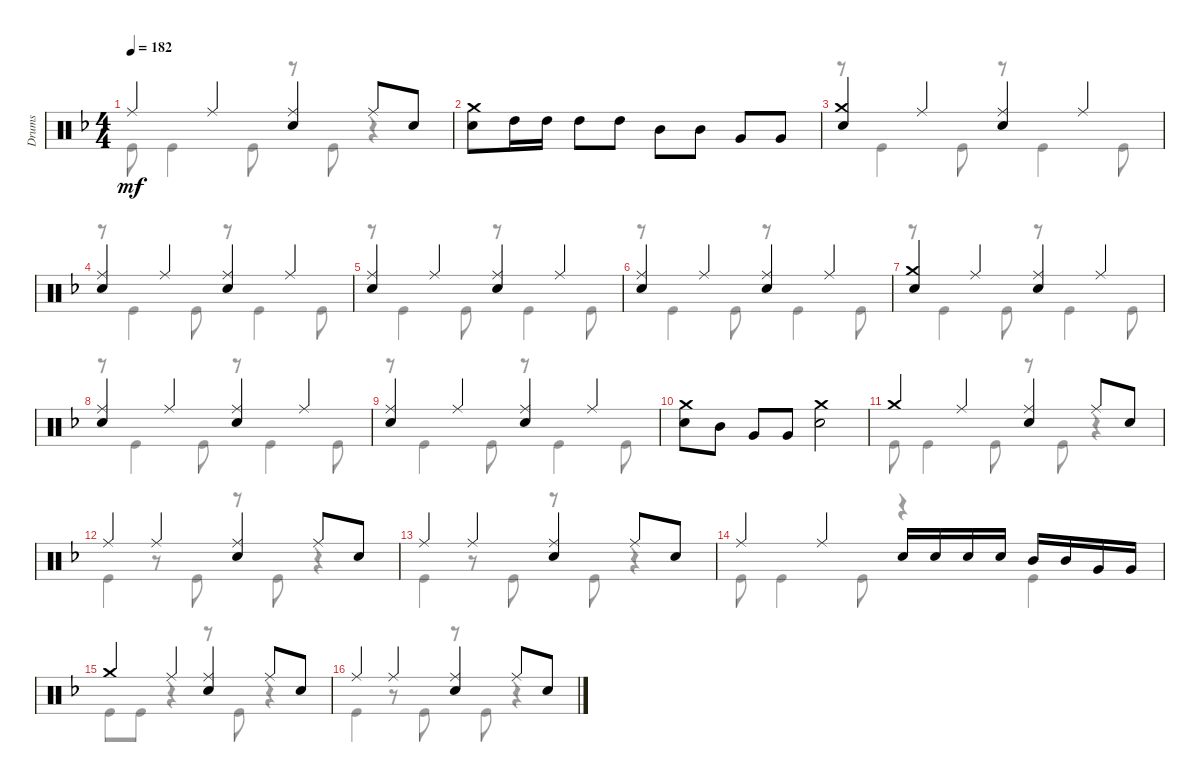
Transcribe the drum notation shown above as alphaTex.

\track ("Drums" "Drums") {instrument percussion}
\staff {score}
\articulation defaults
\voice
\ts (4 4)
\tempo 182
\clef neutral
\ks f "Ride (middle)".4{dy mf} "Ride (middle)".4
("Ride (middle)" "Snare (hit) 2").4 "Ride (middle)".8 "Snare (hit) 2".8 |
("Crash medium (hit)" "Snare (hit) 2").8 "High Tom (hit)".16 "High Tom (hit)".16 "High Tom (hit)".8 "High Tom (hit)".8 "Mid Tom (hit)".8 "Mid Tom (hit)".8 "Very Low Tom (hit)".8 "Very Low Tom (hit)".8 |
("Crash medium (hit)" "Snare (hit) 2").4 "Ride (middle)".4 ("Ride (middle)" "Snare (hit) 2").4 "Ride (middle)".4 |
("Ride (middle)" "Snare (hit) 2").4 "Ride (middle)".4 ("Ride (middle)" "Snare (hit) 2").4 "Ride (middle)".4 |
("Ride (middle)" "Snare (hit) 2").4 "Ride (middle)".4 ("Ride (middle)" "Snare (hit) 2").4 "Ride (middle)".4 |
("Ride (middle)" "Snare (hit) 2").4 "Ride (middle)".4 ("Ride (middle)" "Snare (hit) 2").4 "Ride (middle)".4 |
("Snare (hit) 2" "Crash medium (hit)").4 "Ride (middle)".4 ("Ride (middle)" "Snare (hit) 2").4 "Ride (middle)".4 |
("Snare (hit) 2" "Ride (middle)").4 "Ride (middle)".4 ("Ride (middle)" "Snare (hit) 2").4 "Ride (middle)".4 |
("Ride (middle)" "Snare (hit) 2").4 "Ride (middle)".4 ("Ride (middle)" "Snare (hit) 2").4 "Ride (middle)".4 |
("Crash medium (hit)" "Snare (hit) 2").8 "Mid Tom (hit)".8 "Very Low Tom (hit)".8 "Very Low Tom (hit)".8 ("Snare (hit) 2" "Crash medium (hit)").2 |
"Crash medium (hit)".4 "Ride (middle)".4 ("Ride (middle)" "Snare (hit) 2").4 "Ride (middle)".8 "Snare (hit) 2".8 |
"Ride (middle)".4 "Ride (middle)".4 ("Ride (middle)" "Snare (hit) 2").4 "Ride (middle)".8 "Snare (hit) 2".8 |
"Ride (middle)".4 "Ride (middle)".4 ("Ride (middle)" "Snare (hit) 2").4 "Ride (middle)".8 "Snare (hit) 2".8 |
"Ride (middle)".4 "Ride (middle)".4 "Snare (hit) 2".16 "Snare (hit) 2".16 "Snare (hit) 2".16 "Snare (hit) 2".16 "Mid Tom (hit)".16 "Mid Tom (hit)".16 "Very Low Tom (hit)".16 "Very Low Tom (hit)".16 |
"Crash medium (hit)".4 "Ride (middle)".4 ("Ride (middle)" "Snare (hit) 2").4 "Ride (middle)".8 "Snare (hit) 2".8 |
"Ride (middle)".4 "Ride (middle)".4 ("Ride (middle)" "Snare (hit) 2").4 "Ride (middle)".8 "Snare (hit) 2".8
\voice
\clef neutral
\ottava regular
\simile none
\ks f "Kick (hit)".8{dy mf} "Kick (hit)".4 "Kick (hit)".8
r.8 "Kick (hit)".8 r.4 |
|
r.8 "Kick (hit)".4 "Kick (hit)".8 r.8 "Kick (hit)".4 "Kick (hit)".8 |
r.8 "Kick (hit)".4 "Kick (hit)".8 r.8 "Kick (hit)".4 "Kick (hit)".8 |
r.8 "Kick (hit)".4 "Kick (hit)".8 r.8 "Kick (hit)".4 "Kick (hit)".8 |
r.8 "Kick (hit)".4 "Kick (hit)".8 r.8 "Kick (hit)".4 "Kick (hit)".8 |
r.8 "Kick (hit)".4 "Kick (hit)".8 r.8 "Kick (hit)".4 "Kick (hit)".8 |
r.8 "Kick (hit)".4 "Kick (hit)".8 r.8 "Kick (hit)".4 "Kick (hit)".8 |
r.8 "Kick (hit)".4 "Kick (hit)".8 r.8 "Kick (hit)".4 "Kick (hit)".8 |
|
"Kick (hit)".8 "Kick (hit)".4 "Kick (hit)".8 r.8 "Kick (hit)".8 r.4 |
"Kick (hit)".4 r.8 "Kick (hit)".8 r.8 "Kick (hit)".8 r.4 |
"Kick (hit)".4 r.8 "Kick (hit)".8 r.8 "Kick (hit)".8 r.4 |
"Kick (hit)".8 "Kick (hit)".4 "Kick (hit)".8 r.4 "Kick (hit)".4 |
"Kick (hit)".8 "Kick (hit)".8 r.4 r.8 "Kick (hit)".8 r.4 |
"Kick (hit)".4 r.8 "Kick (hit)".8 r.8 "Kick (hit)".8 r.4
